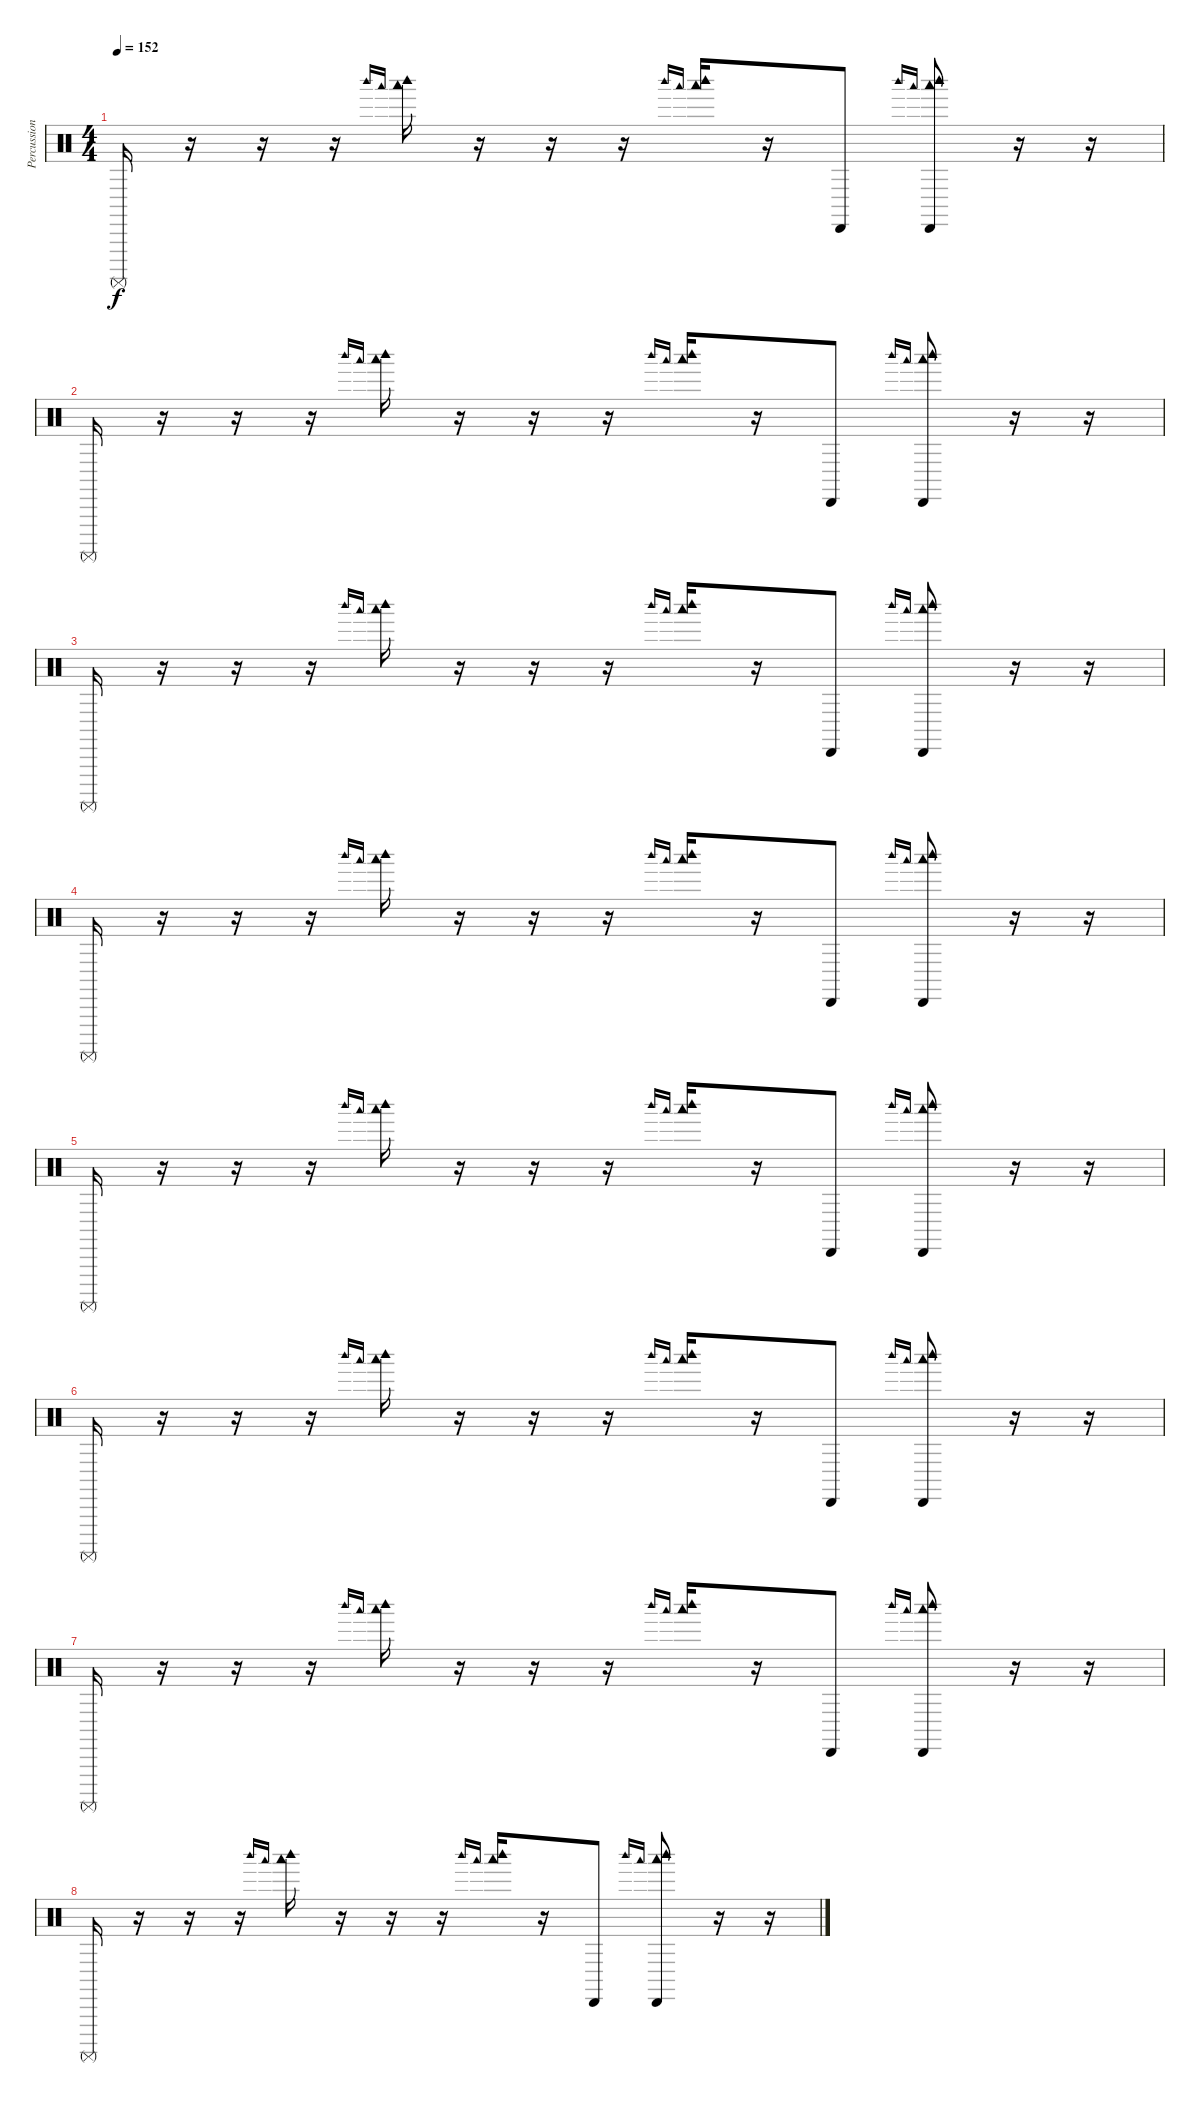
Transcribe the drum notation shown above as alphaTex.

\track ("Percussion" "Percussion") {instrument percussion}
\staff {score}
\articulation defaults
\ts (4 4)
\tempo 152
\clef neutral
\ks c "Surdo (mute)".16{dy f}
r.16 r.16 r.16 "Woodblock high (hit)".16{gr onbeat} "Woodblock low (hit)".16{gr onbeat} ("Woodblock high (hit)" "Woodblock low (hit)").16 r.16 r.16 r.16 "Woodblock high (hit)".16{gr onbeat} "Woodblock low (hit)".16{gr onbeat} ("Woodblock high (hit)" "Woodblock low (hit)").16 r.16 "Cabasa (hit)".8 "Woodblock high (hit)".16{gr onbeat} "Woodblock low (hit)".16{gr onbeat} ("Cabasa (hit)" "Woodblock high (hit)" "Woodblock low (hit)").8 r.16 r.16 |
"Surdo (mute)".16 r.16 r.16 r.16 "Woodblock high (hit)".16{gr onbeat} "Woodblock low (hit)".16{gr onbeat} ("Woodblock high (hit)" "Woodblock low (hit)").16 r.16 r.16 r.16 "Woodblock high (hit)".16{gr onbeat} "Woodblock low (hit)".16{gr onbeat} ("Woodblock high (hit)" "Woodblock low (hit)").16 r.16 "Cabasa (hit)".8 "Woodblock high (hit)".16{gr onbeat} "Woodblock low (hit)".16{gr onbeat} ("Cabasa (hit)" "Woodblock high (hit)" "Woodblock low (hit)").8 r.16 r.16 |
"Surdo (mute)".16 r.16 r.16 r.16 "Woodblock high (hit)".16{gr onbeat} "Woodblock low (hit)".16{gr onbeat} ("Woodblock high (hit)" "Woodblock low (hit)").16 r.16 r.16 r.16 "Woodblock high (hit)".16{gr onbeat} "Woodblock low (hit)".16{gr onbeat} ("Woodblock high (hit)" "Woodblock low (hit)").16 r.16 "Cabasa (hit)".8 "Woodblock high (hit)".16{gr onbeat} "Woodblock low (hit)".16{gr onbeat} ("Cabasa (hit)" "Woodblock high (hit)" "Woodblock low (hit)").8 r.16 r.16 |
"Surdo (mute)".16 r.16 r.16 r.16 "Woodblock high (hit)".16{gr onbeat} "Woodblock low (hit)".16{gr onbeat} ("Woodblock high (hit)" "Woodblock low (hit)").16 r.16 r.16 r.16 "Woodblock high (hit)".16{gr onbeat} "Woodblock low (hit)".16{gr onbeat} ("Woodblock high (hit)" "Woodblock low (hit)").16 r.16 "Cabasa (hit)".8 "Woodblock high (hit)".16{gr onbeat} "Woodblock low (hit)".16{gr onbeat} ("Cabasa (hit)" "Woodblock high (hit)" "Woodblock low (hit)").8 r.16 r.16 |
"Surdo (mute)".16 r.16 r.16 r.16 "Woodblock high (hit)".16{gr onbeat} "Woodblock low (hit)".16{gr onbeat} ("Woodblock high (hit)" "Woodblock low (hit)").16 r.16 r.16 r.16 "Woodblock high (hit)".16{gr onbeat} "Woodblock low (hit)".16{gr onbeat} ("Woodblock high (hit)" "Woodblock low (hit)").16 r.16 "Cabasa (hit)".8 "Woodblock high (hit)".16{gr onbeat} "Woodblock low (hit)".16{gr onbeat} ("Cabasa (hit)" "Woodblock high (hit)" "Woodblock low (hit)").8 r.16 r.16 |
"Surdo (mute)".16 r.16 r.16 r.16 "Woodblock high (hit)".16{gr onbeat} "Woodblock low (hit)".16{gr onbeat} ("Woodblock high (hit)" "Woodblock low (hit)").16 r.16 r.16 r.16 "Woodblock high (hit)".16{gr onbeat} "Woodblock low (hit)".16{gr onbeat} ("Woodblock high (hit)" "Woodblock low (hit)").16 r.16 "Cabasa (hit)".8 "Woodblock high (hit)".16{gr onbeat} "Woodblock low (hit)".16{gr onbeat} ("Cabasa (hit)" "Woodblock high (hit)" "Woodblock low (hit)").8 r.16 r.16 |
"Surdo (mute)".16 r.16 r.16 r.16 "Woodblock high (hit)".16{gr onbeat} "Woodblock low (hit)".16{gr onbeat} ("Woodblock high (hit)" "Woodblock low (hit)").16 r.16 r.16 r.16 "Woodblock high (hit)".16{gr onbeat} "Woodblock low (hit)".16{gr onbeat} ("Woodblock high (hit)" "Woodblock low (hit)").16 r.16 "Cabasa (hit)".8 "Woodblock high (hit)".16{gr onbeat} "Woodblock low (hit)".16{gr onbeat} ("Cabasa (hit)" "Woodblock high (hit)" "Woodblock low (hit)").8 r.16 r.16 |
"Surdo (mute)".16 r.16 r.16 r.16 "Woodblock high (hit)".16{gr onbeat} "Woodblock low (hit)".16{gr onbeat} ("Woodblock high (hit)" "Woodblock low (hit)").16 r.16 r.16 r.16 "Woodblock high (hit)".16{gr onbeat} "Woodblock low (hit)".16{gr onbeat} ("Woodblock high (hit)" "Woodblock low (hit)").16 r.16 "Cabasa (hit)".8 "Woodblock high (hit)".16{gr onbeat} "Woodblock low (hit)".16{gr onbeat} ("Cabasa (hit)" "Woodblock high (hit)" "Woodblock low (hit)").8 r.16 r.16
